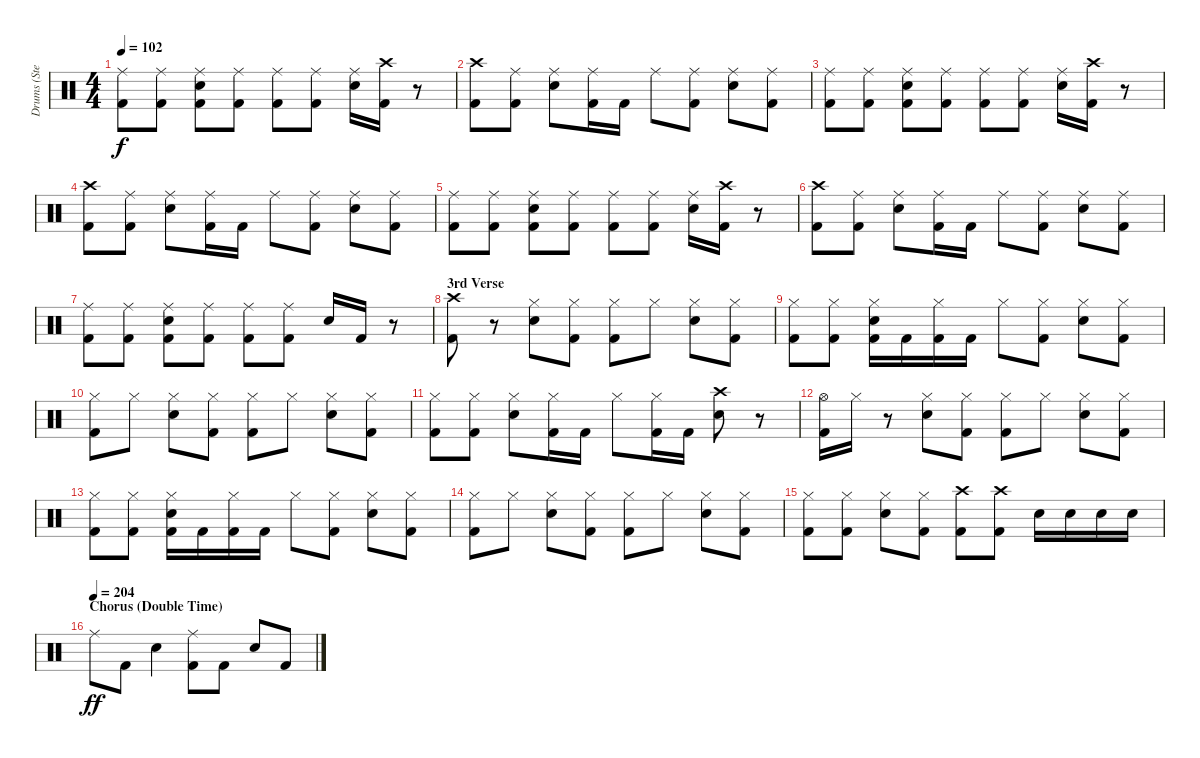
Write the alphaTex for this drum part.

\track ("Drums (Steven)" "Drums (Ste") {instrument percussion}
\staff {score}
\articulation defaults
\ts (4 4)
\tempo 102
\clef neutral
\ks c
("Kick (hit) 2" "Ride (middle)").8{dy f} ("Kick (hit) 2" "Ride (middle)").8 ("Snare (hit) 2" "Kick (hit) 2" "Ride (middle)").8 ("Kick (hit) 2" "Ride (middle)").8 ("Kick (hit) 2" "Ride (middle)").8 ("Kick (hit) 2" "Ride (middle)").8 ("Snare (hit) 2" "Ride (middle)").16 ("Kick (hit) 2" "Crash high (hit)").16 r.8 |
("Kick (hit) 2" "Crash high (hit)").8 ("Kick (hit) 2" "Ride (middle)").8 ("Snare (hit) 2" "Ride (middle)").8 ("Kick (hit) 2" "Ride (middle)").16 "Kick (hit) 2".16 "Ride (middle)".8 ("Kick (hit) 2" "Ride (middle)").8 ("Snare (hit) 2" "Ride (middle)").8 ("Kick (hit) 2" "Ride (middle)").8 |
("Kick (hit) 2" "Ride (middle)").8 ("Kick (hit) 2" "Ride (middle)").8 ("Snare (hit) 2" "Kick (hit) 2" "Ride (middle)").8 ("Kick (hit) 2" "Ride (middle)").8 ("Kick (hit) 2" "Ride (middle)").8 ("Kick (hit) 2" "Ride (middle)").8 ("Snare (hit) 2" "Ride (middle)").16 ("Kick (hit) 2" "Crash high (hit)").16 r.8 |
("Kick (hit) 2" "Crash high (hit)").8 ("Kick (hit) 2" "Ride (middle)").8 ("Snare (hit) 2" "Ride (middle)").8 ("Kick (hit) 2" "Ride (middle)").16 "Kick (hit) 2".16 "Ride (middle)".8 ("Kick (hit) 2" "Ride (middle)").8 ("Snare (hit) 2" "Ride (middle)").8 ("Kick (hit) 2" "Ride (middle)").8 |
("Kick (hit) 2" "Ride (middle)").8 ("Kick (hit) 2" "Ride (middle)").8 ("Snare (hit) 2" "Kick (hit) 2" "Ride (middle)").8 ("Kick (hit) 2" "Ride (middle)").8 ("Kick (hit) 2" "Ride (middle)").8 ("Kick (hit) 2" "Ride (middle)").8 ("Snare (hit) 2" "Ride (middle)").16 ("Kick (hit) 2" "Crash high (hit)").16 r.8 |
("Kick (hit) 2" "Crash high (hit)").8 ("Kick (hit) 2" "Ride (middle)").8 ("Snare (hit) 2" "Ride (middle)").8 ("Kick (hit) 2" "Ride (middle)").16 "Kick (hit) 2".16 "Ride (middle)".8 ("Kick (hit) 2" "Ride (middle)").8 ("Snare (hit) 2" "Ride (middle)").8 ("Kick (hit) 2" "Ride (middle)").8 |
("Kick (hit) 2" "Ride (middle)").8 ("Kick (hit) 2" "Ride (middle)").8 ("Snare (hit) 2" "Kick (hit) 2" "Ride (middle)").8 ("Kick (hit) 2" "Ride (middle)").8 ("Kick (hit) 2" "Ride (middle)").8 ("Kick (hit) 2" "Ride (middle)").8 "Electric Snare (hit)".16 "Kick (hit) 2".16 r.8 |
\section ("" "3rd Verse")
("Kick (hit) 2" "Crash high (hit)").8 r.8 ("Snare (hit) 2" "Hi-Hat (closed)").8 ("Kick (hit) 2" "Hi-Hat (closed)").8 ("Kick (hit) 2" "Hi-Hat (closed)").8 "Hi-Hat (closed)".8 ("Snare (hit) 2" "Hi-Hat (closed)").8 ("Kick (hit) 2" "Hi-Hat (closed)").8 |
("Kick (hit) 2" "Hi-Hat (closed)").8 ("Kick (hit) 2" "Hi-Hat (closed)").8 ("Snare (hit) 2" "Kick (hit) 2" "Hi-Hat (closed)").16 "Kick (hit) 2".16 ("Kick (hit) 2" "Hi-Hat (closed)").16 "Kick (hit) 2".16 "Hi-Hat (closed)".8 ("Kick (hit) 2" "Hi-Hat (closed)").8 ("Snare (hit) 2" "Hi-Hat (closed)").8 ("Kick (hit) 2" "Hi-Hat (closed)").8 |
("Kick (hit) 2" "Hi-Hat (closed)").8 "Hi-Hat (closed)".8 ("Snare (hit) 2" "Hi-Hat (closed)").8 ("Kick (hit) 2" "Hi-Hat (closed)").8 ("Kick (hit) 2" "Hi-Hat (closed)").8 "Hi-Hat (closed)".8 ("Snare (hit) 2" "Hi-Hat (closed)").8 ("Kick (hit) 2" "Hi-Hat (closed)").8 |
("Kick (hit) 2" "Hi-Hat (closed)").8 ("Kick (hit) 2" "Hi-Hat (closed)").8 ("Snare (hit) 2" "Hi-Hat (closed)").8 ("Kick (hit) 2" "Hi-Hat (closed)").16 "Kick (hit) 2".16 "Hi-Hat (closed)".8 ("Kick (hit) 2" "Hi-Hat (closed)").16 "Kick (hit) 2".16 ("Snare (hit) 2" "Crash high (hit)").8 r.8 |
("Kick (hit) 2" "Hi-Hat (open)").16 "Hi-Hat (closed)".16 r.8 ("Snare (hit) 2" "Hi-Hat (closed)").8 ("Kick (hit) 2" "Hi-Hat (closed)").8 ("Kick (hit) 2" "Hi-Hat (closed)").8 "Hi-Hat (closed)".8 ("Snare (hit) 2" "Hi-Hat (closed)").8 ("Kick (hit) 2" "Hi-Hat (closed)").8 |
("Kick (hit) 2" "Hi-Hat (closed)").8 ("Kick (hit) 2" "Hi-Hat (closed)").8 ("Snare (hit) 2" "Kick (hit) 2" "Hi-Hat (closed)").16 "Kick (hit) 2".16 ("Kick (hit) 2" "Hi-Hat (closed)").16 "Kick (hit) 2".16 "Hi-Hat (closed)".8 ("Kick (hit) 2" "Hi-Hat (closed)").8 ("Snare (hit) 2" "Hi-Hat (closed)").8 ("Kick (hit) 2" "Hi-Hat (closed)").8 |
("Kick (hit) 2" "Hi-Hat (closed)").8 "Hi-Hat (closed)".8 ("Snare (hit) 2" "Hi-Hat (closed)").8 ("Kick (hit) 2" "Hi-Hat (closed)").8 ("Kick (hit) 2" "Hi-Hat (closed)").8 "Hi-Hat (closed)".8 ("Snare (hit) 2" "Hi-Hat (closed)").8 ("Kick (hit) 2" "Hi-Hat (closed)").8 |
("Kick (hit) 2" "Hi-Hat (closed)").8 ("Kick (hit) 2" "Hi-Hat (closed)").8 ("Snare (hit) 2" "Hi-Hat (closed)").8 ("Kick (hit) 2" "Hi-Hat (closed)").8 ("Kick (hit) 2" "Crash high (hit)").8 ("Kick (hit) 2" "Crash high (hit)").8 "Snare (hit) 2".16 "Snare (hit) 2".16 "Snare (hit) 2".16 "Snare (hit) 2".16 |
\section ("" "Chorus (Double Time)")
\tempo (204)
"Ride (middle)".8{dy ff} "Kick (hit) 2".8 "Snare (hit) 2".4 ("Kick (hit) 2" "Ride (middle)").8 "Kick (hit) 2".8 "Snare (hit) 2".8 "Kick (hit) 2".8
